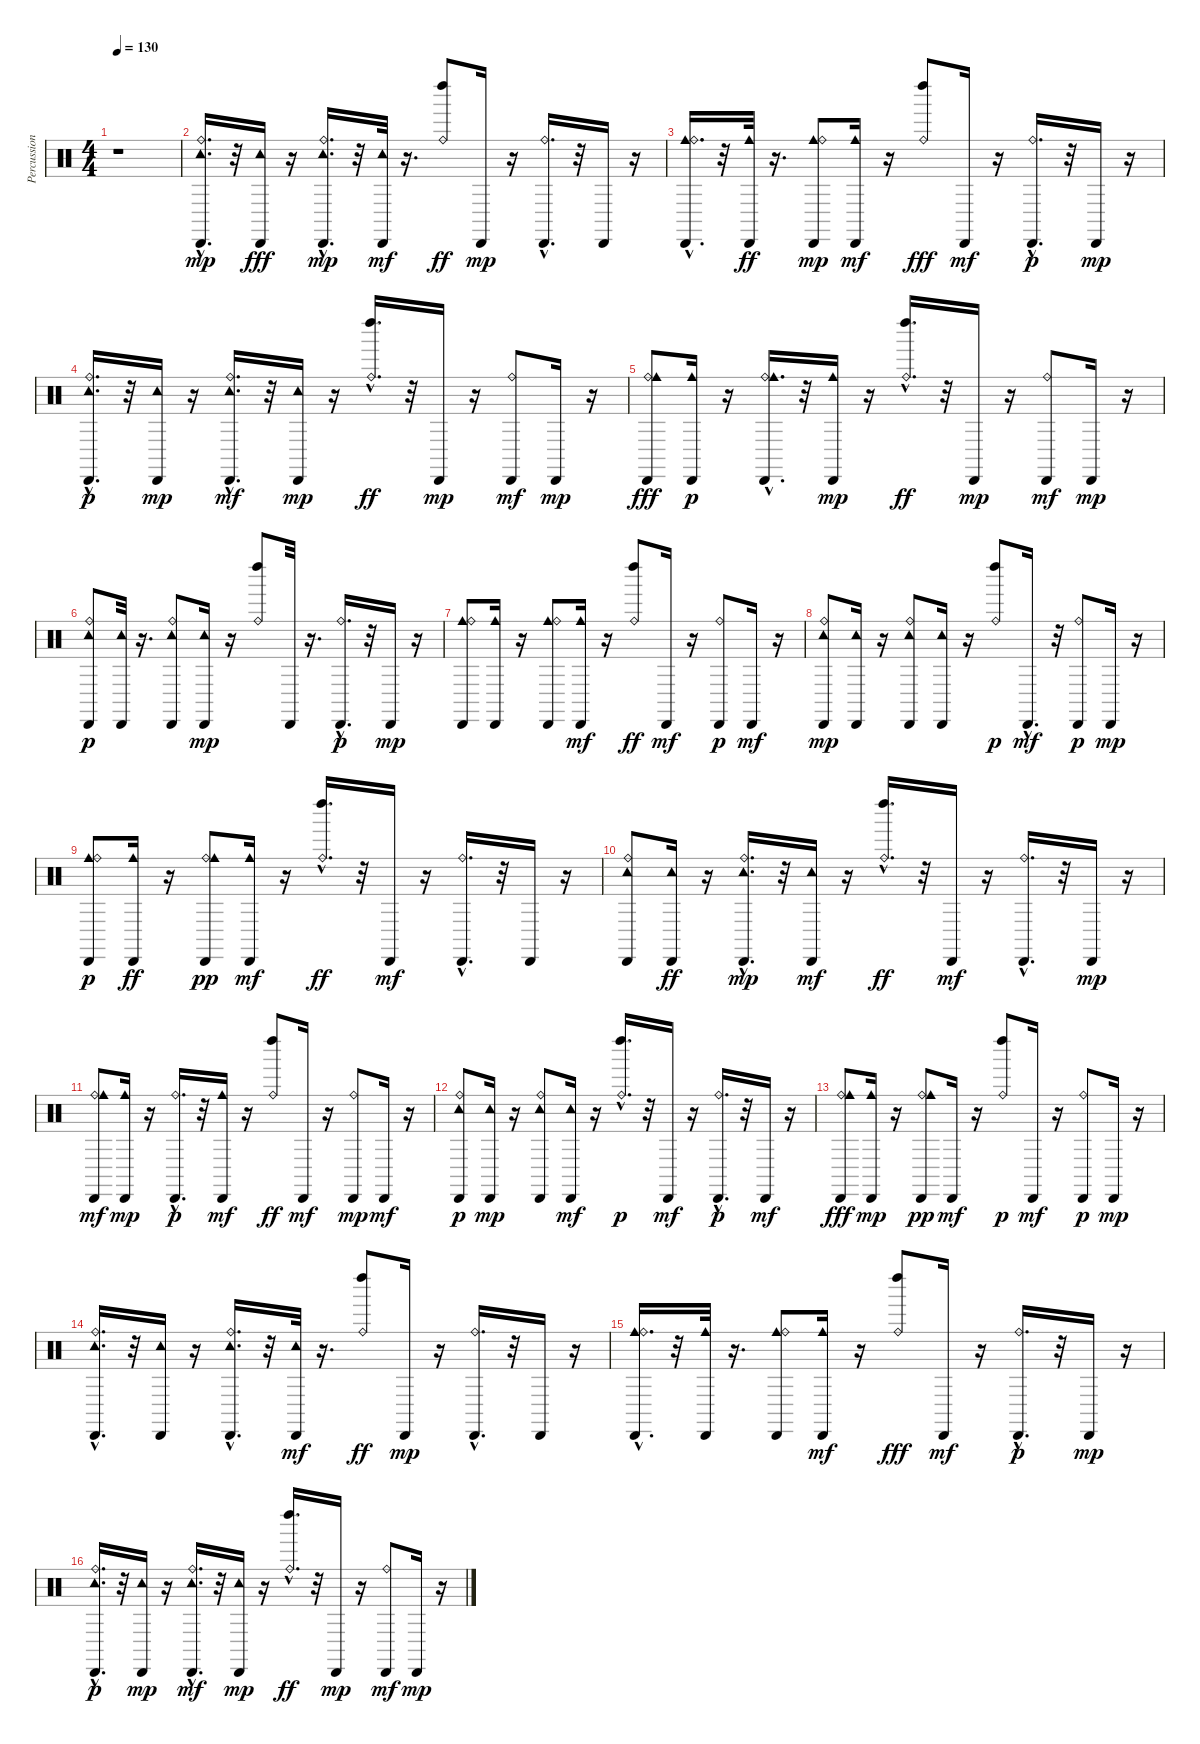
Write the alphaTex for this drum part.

\track ("Percussion" "Percussion") {instrument percussion}
\staff {score}
\articulation defaults
\ts (4 4)
\tempo 130
\clef neutral
\ks c
r.1{dy mp} |
("Cabasa (hit)" "Tambourine (hit)" "Ride (bell)"{hac}).16{d} r.32 ("Cabasa (hit)" "Tambourine (hit)").16{dy fff} r.16 ("Tambourine (hit)" "Cabasa (hit)" "Ride (bell)"{hac}).16{d dy mp} r.32 ("Tambourine (hit)" "Cabasa (hit)").32{dy mf} r.16{d} ("Ride (bell)" "Left Maraca (hit)").8{dy ff} "Cabasa (hit)".16{dy mp} r.16 ("Ride (bell)"{hac} "Cabasa (hit)").16{d} r.32 "Cabasa (hit)".16 r.16 |
("Cowbell medium (hit)" "Cabasa (hit)" "Ride (bell)"{hac}).16{d} r.32 ("Cabasa (hit)" "Cowbell medium (hit)").32{dy ff} r.16{d} ("Cowbell medium (hit)" "Cabasa (hit)" "Ride (bell)").8{dy mp} ("Cowbell medium (hit)" "Cabasa (hit)").16{dy mf} r.16 ("Ride (bell)" "Left Maraca (hit)").8{dy fff} "Cabasa (hit)".16{dy mf} r.16 ("Cabasa (hit)" "Ride (bell)"{hac}).16{d dy p} r.32 "Cabasa (hit)".16{dy mp} r.16 |
("Tambourine (hit)" "Cabasa (hit)" "Ride (bell)"{hac}).16{d dy p} r.32 ("Tambourine (hit)" "Cabasa (hit)").16{dy mp} r.16 ("Ride (bell)"{hac} "Tambourine (hit)" "Cabasa (hit)").16{d dy mf} r.32 ("Tambourine (hit)" "Cabasa (hit)").16{dy mp} r.16 ("Ride (bell)"{hac} "Left Maraca (hit)").16{d dy ff} r.32 "Cabasa (hit)".16{dy mp} r.16 ("Ride (bell)" "Cabasa (hit)").8{dy mf} "Cabasa (hit)".16{dy mp} r.16 |
("Ride (bell)" "Cowbell medium (hit)" "Cabasa (hit)").8{dy fff} ("Cabasa (hit)" "Cowbell medium (hit)").16{dy p} r.16 ("Ride (bell)"{hac} "Cabasa (hit)" "Cowbell medium (hit)").16{d} r.32 ("Cowbell medium (hit)" "Cabasa (hit)").16{dy mp} r.16 ("Ride (bell)"{hac} "Left Maraca (hit)").16{d dy ff} r.32 "Cabasa (hit)".16{dy mp} r.16 ("Ride (bell)" "Cabasa (hit)").8{dy mf} "Cabasa (hit)".16{dy mp} r.16 |
("Tambourine (hit)" "Cabasa (hit)" "Ride (bell)").8{dy p} ("Tambourine (hit)" "Cabasa (hit)").32 r.16{d} ("Cabasa (hit)" "Tambourine (hit)" "Ride (bell)").8 ("Cabasa (hit)" "Tambourine (hit)").16{dy mp} r.16 ("Left Maraca (hit)" "Ride (bell)").8 "Cabasa (hit)".32 r.16{d} ("Cabasa (hit)" "Ride (bell)"{hac}).16{d dy p} r.32 "Cabasa (hit)".16{dy mp} r.16 |
("Cowbell medium (hit)" "Ride (bell)" "Cabasa (hit)").8 ("Cabasa (hit)" "Cowbell medium (hit)").16 r.16 ("Cabasa (hit)" "Cowbell medium (hit)" "Ride (bell)").8 ("Cowbell medium (hit)" "Cabasa (hit)").16{dy mf} r.16 ("Ride (bell)" "Left Maraca (hit)").8{dy ff} "Cabasa (hit)".16{dy mf} r.16 ("Cabasa (hit)" "Ride (bell)").8{dy p} "Cabasa (hit)".16{dy mf} r.16 |
("Tambourine (hit)" "Cabasa (hit)" "Ride (bell)").8{dy mp} ("Cabasa (hit)" "Tambourine (hit)").16 r.16 ("Cabasa (hit)" "Tambourine (hit)" "Ride (bell)").8 ("Tambourine (hit)" "Cabasa (hit)").16 r.16 ("Left Maraca (hit)" "Ride (bell)").8{dy p} "Cabasa (hit)"{hac}.16{d dy mf} r.32 ("Cabasa (hit)" "Ride (bell)").8{dy p} "Cabasa (hit)".16{dy mp} r.16 |
("Cowbell medium (hit)" "Cabasa (hit)" "Ride (bell)").8{dy p} ("Cabasa (hit)" "Cowbell medium (hit)").16{dy ff} r.16 ("Cabasa (hit)" "Ride (bell)" "Cowbell medium (hit)").8{dy pp} ("Cowbell medium (hit)" "Cabasa (hit)").16{dy mf} r.16 ("Ride (bell)"{hac} "Left Maraca (hit)").16{d dy ff} r.32 "Cabasa (hit)".16{dy mf} r.16 ("Ride (bell)"{hac} "Cabasa (hit)").16{d} r.32 "Cabasa (hit)".16 r.16 |
("Ride (bell)" "Tambourine (hit)" "Cabasa (hit)").8 ("Cabasa (hit)" "Tambourine (hit)").16{dy ff} r.16 ("Cabasa (hit)" "Tambourine (hit)" "Ride (bell)"{hac}).16{d dy mp} r.32 ("Tambourine (hit)" "Cabasa (hit)").16{dy mf} r.16 ("Ride (bell)"{hac} "Left Maraca (hit)").16{d dy ff} r.32 "Cabasa (hit)".16{dy mf} r.16 ("Ride (bell)"{hac} "Cabasa (hit)").16{d} r.32 "Cabasa (hit)".16{dy mp} r.16 |
("Ride (bell)" "Cowbell medium (hit)" "Cabasa (hit)").8{dy mf} ("Cowbell medium (hit)" "Cabasa (hit)").16{dy mp} r.16 ("Cabasa (hit)" "Ride (bell)"{hac}).16{d dy p} r.32 ("Cowbell medium (hit)" "Cabasa (hit)").16{dy mf} r.16 ("Ride (bell)" "Left Maraca (hit)").8{dy ff} "Cabasa (hit)".16{dy mf} r.16 ("Cabasa (hit)" "Ride (bell)").8{dy mp} "Cabasa (hit)".16{dy mf} r.16 |
("Tambourine (hit)" "Ride (bell)" "Cabasa (hit)").8{dy p} ("Tambourine (hit)" "Cabasa (hit)").16{dy mp} r.16 ("Cabasa (hit)" "Tambourine (hit)" "Ride (bell)").8 ("Tambourine (hit)" "Cabasa (hit)").16{dy mf} r.16 ("Left Maraca (hit)" "Ride (bell)"{hac}).16{d dy p} r.32 "Cabasa (hit)".16{dy mf} r.16 ("Cabasa (hit)" "Ride (bell)"{hac}).16{d dy p} r.32 "Cabasa (hit)".16{dy mf} r.16 |
("Ride (bell)" "Cabasa (hit)" "Cowbell medium (hit)").8{dy fff} ("Cowbell medium (hit)" "Cabasa (hit)").16{dy mp} r.16 ("Ride (bell)" "Cabasa (hit)" "Cowbell medium (hit)").8{dy pp} "Cabasa (hit)".16{dy mf} r.16 ("Left Maraca (hit)" "Ride (bell)").8{dy p} "Cabasa (hit)".16{dy mf} r.16 ("Cabasa (hit)" "Ride (bell)").8{dy p} "Cabasa (hit)".16{dy mp} r.16 |
("Tambourine (hit)" "Cabasa (hit)" "Ride (bell)"{hac}).16{d} r.32 ("Tambourine (hit)" "Cabasa (hit)").16 r.16 ("Tambourine (hit)" "Cabasa (hit)" "Ride (bell)"{hac}).16{d} r.32 ("Tambourine (hit)" "Cabasa (hit)").32{dy mf} r.16{d} ("Ride (bell)" "Left Maraca (hit)").8{dy ff} "Cabasa (hit)".16{dy mp} r.16 ("Ride (bell)"{hac} "Cabasa (hit)").16{d} r.32 "Cabasa (hit)".16 r.16 |
("Cowbell medium (hit)" "Cabasa (hit)" "Ride (bell)"{hac}).16{d} r.32 ("Cowbell medium (hit)" "Cabasa (hit)").32 r.16{d} ("Cowbell medium (hit)" "Cabasa (hit)" "Ride (bell)").8 ("Cowbell medium (hit)" "Cabasa (hit)").16{dy mf} r.16 ("Ride (bell)" "Left Maraca (hit)").8{dy fff} "Cabasa (hit)".16{dy mf} r.16 ("Cabasa (hit)" "Ride (bell)"{hac}).16{d dy p} r.32 "Cabasa (hit)".16{dy mp} r.16 |
("Tambourine (hit)" "Cabasa (hit)" "Ride (bell)"{hac}).16{d dy p} r.32 ("Tambourine (hit)" "Cabasa (hit)").16{dy mp} r.16 ("Ride (bell)"{hac} "Tambourine (hit)" "Cabasa (hit)").16{d dy mf} r.32 ("Tambourine (hit)" "Cabasa (hit)").16{dy mp} r.16 ("Ride (bell)"{hac} "Left Maraca (hit)").16{d dy ff} r.32 "Cabasa (hit)".16{dy mp} r.16 ("Ride (bell)" "Cabasa (hit)").8{dy mf} "Cabasa (hit)".16{dy mp} r.16
